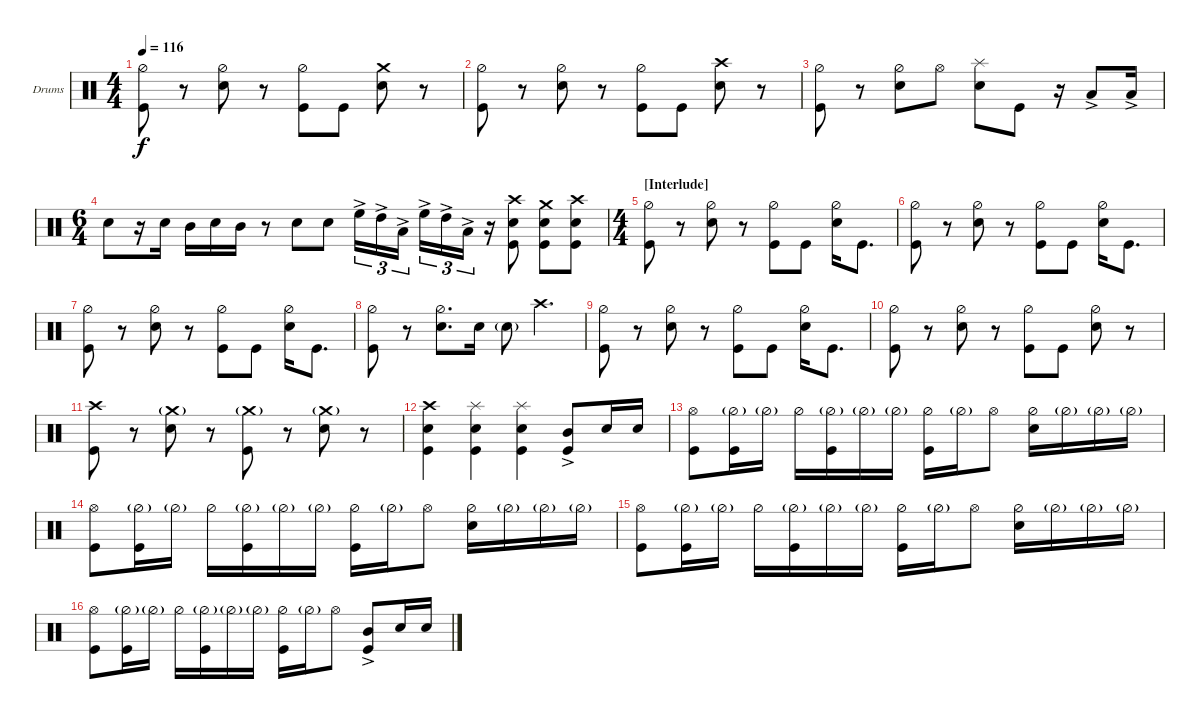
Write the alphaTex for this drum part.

\bracketExtendMode nobrackets
\firstSystemTrackNameOrientation horizontal
\otherSystemsTrackNameOrientation horizontal
\track ("Drumkit" "Drums") {instrument percussion}
\staff {score}
\articulation defaults
\ts (4 4)
\tempo 116
\clef neutral
\ks c
("Hi-Hat (half)" "Kick (hit)").8{dy f} r.8 ("Snare (hit) 2" "Hi-Hat (half)").8 r.8 ("Hi-Hat (half)" "Kick (hit)").8 "Kick (hit)".8 ("Snare (hit) 2" "Crash medium (hit)").8 r.8 |
("Hi-Hat (half)" "Kick (hit)").8 r.8 ("Snare (hit) 2" "Hi-Hat (half)").8 r.8 ("Hi-Hat (half)" "Kick (hit)").8 "Kick (hit)".8 ("Snare (hit) 2" "Crash high (hit)").8 r.8 |
("Hi-Hat (half)" "Kick (hit)").8 r.8 ("Snare (hit) 2" "Hi-Hat (half)").8 "Hi-Hat (open)".8 ("Splash (hit)" "Snare (hit) 2").8 "Kick (hit)".8 r.16 "Low Tom (hit)"{ac}.8 "Low Tom (hit)"{ac}.16 |
\ts (6 4)
"Snare (hit) 2".8 r.16 "Snare (hit) 2".16 "Mid Tom (hit)".16 "Snare (hit) 2".16 "Mid Tom (hit)".16 r.8 "Snare (hit) 2".8 "Snare (hit) 2".8 "High Floor Tom (hit)"{ac}.16{tu (3 2)} "High Tom (hit)"{ac}.16{tu (3 2)} "Low Tom (hit)"{ac}.16{tu (3 2)} "High Floor Tom (hit)"{ac}.16{tu (3 2)} "High Tom (hit)"{ac}.16{tu (3 2)} "Low Tom (hit)"{ac}.16{tu (3 2)} r.16 ("Snare (hit) 2" "Kick (hit)" "Crash high (hit)").8 ("Snare (hit) 2" "Kick (hit)" "Crash medium (hit)").8 ("Snare (hit) 2" "Kick (hit)" "Crash high (hit)").8 |
\ts (4 4)
\section ("" "[Interlude]")
("Hi-Hat (half)" "Kick (hit)").8 r.8 ("Snare (hit) 2" "Hi-Hat (half)").8 r.8 ("Hi-Hat (half)" "Kick (hit)").8 "Kick (hit)".8 ("Hi-Hat (half)" "Snare (hit) 2").16 "Kick (hit)".8{d} |
("Hi-Hat (half)" "Kick (hit)").8 r.8 ("Snare (hit) 2" "Hi-Hat (half)").8 r.8 ("Hi-Hat (half)" "Kick (hit)").8 "Kick (hit)".8 ("Hi-Hat (half)" "Snare (hit) 2").16 "Kick (hit)".8{d} |
("Hi-Hat (half)" "Kick (hit)").8 r.8 ("Snare (hit) 2" "Hi-Hat (half)").8 r.8 ("Hi-Hat (half)" "Kick (hit)").8 "Kick (hit)".8 ("Hi-Hat (half)" "Snare (hit) 2").16 "Kick (hit)".8{d} |
("Hi-Hat (half)" "Kick (hit)").8 r.8 ("Snare (hit) 2" "Hi-Hat (half)").8{d} "Snare (hit) 2".16 "Snare (hit) 2"{g}.8 "Crash high (hit)".4{d} |
("Hi-Hat (half)" "Kick (hit)").8 r.8 ("Snare (hit) 2" "Hi-Hat (half)").8 r.8 ("Hi-Hat (half)" "Kick (hit)").8 "Kick (hit)".8 ("Hi-Hat (half)" "Snare (hit) 2").16 "Kick (hit)".8{d} |
("Hi-Hat (half)" "Kick (hit)").8 r.8 ("Snare (hit) 2" "Hi-Hat (half)").8 r.8 ("Hi-Hat (half)" "Kick (hit)").8 "Kick (hit)".8 ("Hi-Hat (half)" "Snare (hit) 2").8 r.8 |
("Kick (hit)" "Crash high (hit)").8 r.8 ("Snare (hit) 2" "Crash medium (hit)"{g}).8 r.8 ("Kick (hit)" "Crash medium (hit)"{g}).8 r.8 ("Snare (hit) 2" "Crash medium (hit)"{g}).8 r.8 |
("Snare (hit) 2" "Kick (hit)" "Crash high (hit)").4 ("Snare (hit) 2" "Kick (hit)" "Splash (hit)").4 ("Snare (hit) 2" "Kick (hit)" "Splash (hit)").4 ("Kick (hit)" "Mid Tom (hit)"{ac}).8 "Snare (hit) 2".16 "Snare (hit) 2".16 |
("Hi-Hat (open)" "Kick (hit)").8 ("Hi-Hat (half)"{g} "Kick (hit)").16 "Hi-Hat (half)"{g}.16 "Hi-Hat (half)".16 ("Kick (hit)" "Hi-Hat (half)"{g}).16 "Hi-Hat (half)"{g}.16 "Hi-Hat (half)"{g}.16 ("Hi-Hat (half)" "Kick (hit)").16 "Hi-Hat (half)"{g}.16 "Hi-Hat (open)".8 ("Hi-Hat (half)" "Snare (hit) 2").16 "Hi-Hat (half)"{g}.16 "Hi-Hat (half)"{g}.16 "Hi-Hat (half)"{g}.16 |
("Hi-Hat (open)" "Kick (hit)").8 ("Hi-Hat (half)"{g} "Kick (hit)").16 "Hi-Hat (half)"{g}.16 "Hi-Hat (half)".16 ("Kick (hit)" "Hi-Hat (half)"{g}).16 "Hi-Hat (half)"{g}.16 "Hi-Hat (half)"{g}.16 ("Hi-Hat (half)" "Kick (hit)").16 "Hi-Hat (half)"{g}.16 "Hi-Hat (open)".8 ("Hi-Hat (half)" "Snare (hit) 2").16 "Hi-Hat (half)"{g}.16 "Hi-Hat (half)"{g}.16 "Hi-Hat (half)"{g}.16 |
("Hi-Hat (open)" "Kick (hit)").8 ("Hi-Hat (half)"{g} "Kick (hit)").16 "Hi-Hat (half)"{g}.16 "Hi-Hat (half)".16 ("Kick (hit)" "Hi-Hat (half)"{g}).16 "Hi-Hat (half)"{g}.16 "Hi-Hat (half)"{g}.16 ("Hi-Hat (half)" "Kick (hit)").16 "Hi-Hat (half)"{g}.16 "Hi-Hat (open)".8 ("Hi-Hat (half)" "Snare (hit) 2").16 "Hi-Hat (half)"{g}.16 "Hi-Hat (half)"{g}.16 "Hi-Hat (half)"{g}.16 |
("Hi-Hat (open)" "Kick (hit)").8 ("Hi-Hat (half)"{g} "Kick (hit)").16 "Hi-Hat (half)"{g}.16 "Hi-Hat (half)".16 ("Kick (hit)" "Hi-Hat (half)"{g}).16 "Hi-Hat (half)"{g}.16 "Hi-Hat (half)"{g}.16 ("Hi-Hat (half)" "Kick (hit)").16 "Hi-Hat (half)"{g}.16 "Hi-Hat (open)".8 ("Kick (hit)" "Mid Tom (hit)"{ac}).8 "Snare (hit) 2".16 "Snare (hit) 2".16
